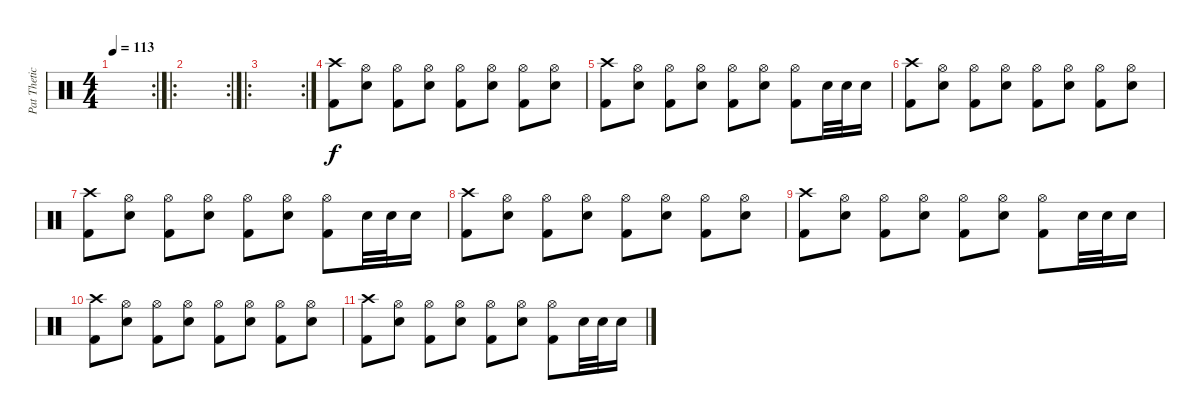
\track ("Pat Thetic" "Pat Thetic") {instrument percussion}
\staff {score}
\articulation defaults
\rc 2
\ts (4 4)
\tempo 113
\clef neutral
\ks c
|
\ro
\rc 2
|
\ro
\rc 2
|
("Crash high (hit)" "Kick (hit) 2").8 ("Snare (hit) 2" "Hi-Hat (open)").8 ("Kick (hit) 2" "Hi-Hat (open)").8 ("Snare (hit) 2" "Hi-Hat (open)").8 ("Kick (hit) 2" "Hi-Hat (open)").8 ("Snare (hit) 2" "Hi-Hat (open)").8 ("Kick (hit) 2" "Hi-Hat (open)").8 ("Snare (hit) 2" "Hi-Hat (open)").8 |
("Crash high (hit)" "Kick (hit) 2").8 ("Snare (hit) 2" "Hi-Hat (open)").8 ("Kick (hit) 2" "Hi-Hat (open)").8 ("Snare (hit) 2" "Hi-Hat (open)").8 ("Kick (hit) 2" "Hi-Hat (open)").8 ("Snare (hit) 2" "Hi-Hat (open)").8 ("Kick (hit) 2" "Hi-Hat (open)").8 "Snare (hit) 2".32 "Snare (hit) 2".32 "Snare (hit) 2".16 |
("Crash high (hit)" "Kick (hit) 2").8 ("Snare (hit) 2" "Hi-Hat (open)").8 ("Kick (hit) 2" "Hi-Hat (open)").8 ("Snare (hit) 2" "Hi-Hat (open)").8 ("Kick (hit) 2" "Hi-Hat (open)").8 ("Snare (hit) 2" "Hi-Hat (open)").8 ("Kick (hit) 2" "Hi-Hat (open)").8 ("Snare (hit) 2" "Hi-Hat (open)").8 |
("Crash high (hit)" "Kick (hit) 2").8 ("Snare (hit) 2" "Hi-Hat (open)").8 ("Kick (hit) 2" "Hi-Hat (open)").8 ("Snare (hit) 2" "Hi-Hat (open)").8 ("Kick (hit) 2" "Hi-Hat (open)").8 ("Snare (hit) 2" "Hi-Hat (open)").8 ("Kick (hit) 2" "Hi-Hat (open)").8 "Snare (hit) 2".32 "Snare (hit) 2".32 "Snare (hit) 2".16 |
("Crash high (hit)" "Kick (hit) 2").8 ("Snare (hit) 2" "Hi-Hat (open)").8 ("Kick (hit) 2" "Hi-Hat (open)").8 ("Snare (hit) 2" "Hi-Hat (open)").8 ("Kick (hit) 2" "Hi-Hat (open)").8 ("Snare (hit) 2" "Hi-Hat (open)").8 ("Kick (hit) 2" "Hi-Hat (open)").8 ("Snare (hit) 2" "Hi-Hat (open)").8 |
("Crash high (hit)" "Kick (hit) 2").8 ("Snare (hit) 2" "Hi-Hat (open)").8 ("Kick (hit) 2" "Hi-Hat (open)").8 ("Snare (hit) 2" "Hi-Hat (open)").8 ("Kick (hit) 2" "Hi-Hat (open)").8 ("Snare (hit) 2" "Hi-Hat (open)").8 ("Kick (hit) 2" "Hi-Hat (open)").8 "Snare (hit) 2".32 "Snare (hit) 2".32 "Snare (hit) 2".16 |
("Crash high (hit)" "Kick (hit) 2").8 ("Snare (hit) 2" "Hi-Hat (open)").8 ("Kick (hit) 2" "Hi-Hat (open)").8 ("Snare (hit) 2" "Hi-Hat (open)").8 ("Kick (hit) 2" "Hi-Hat (open)").8 ("Snare (hit) 2" "Hi-Hat (open)").8 ("Kick (hit) 2" "Hi-Hat (open)").8 ("Snare (hit) 2" "Hi-Hat (open)").8 |
("Crash high (hit)" "Kick (hit) 2").8 ("Snare (hit) 2" "Hi-Hat (open)").8 ("Kick (hit) 2" "Hi-Hat (open)").8 ("Snare (hit) 2" "Hi-Hat (open)").8 ("Kick (hit) 2" "Hi-Hat (open)").8 ("Snare (hit) 2" "Hi-Hat (open)").8 ("Kick (hit) 2" "Hi-Hat (open)").8 "Snare (hit) 2".32 "Snare (hit) 2".32 "Snare (hit) 2".16
